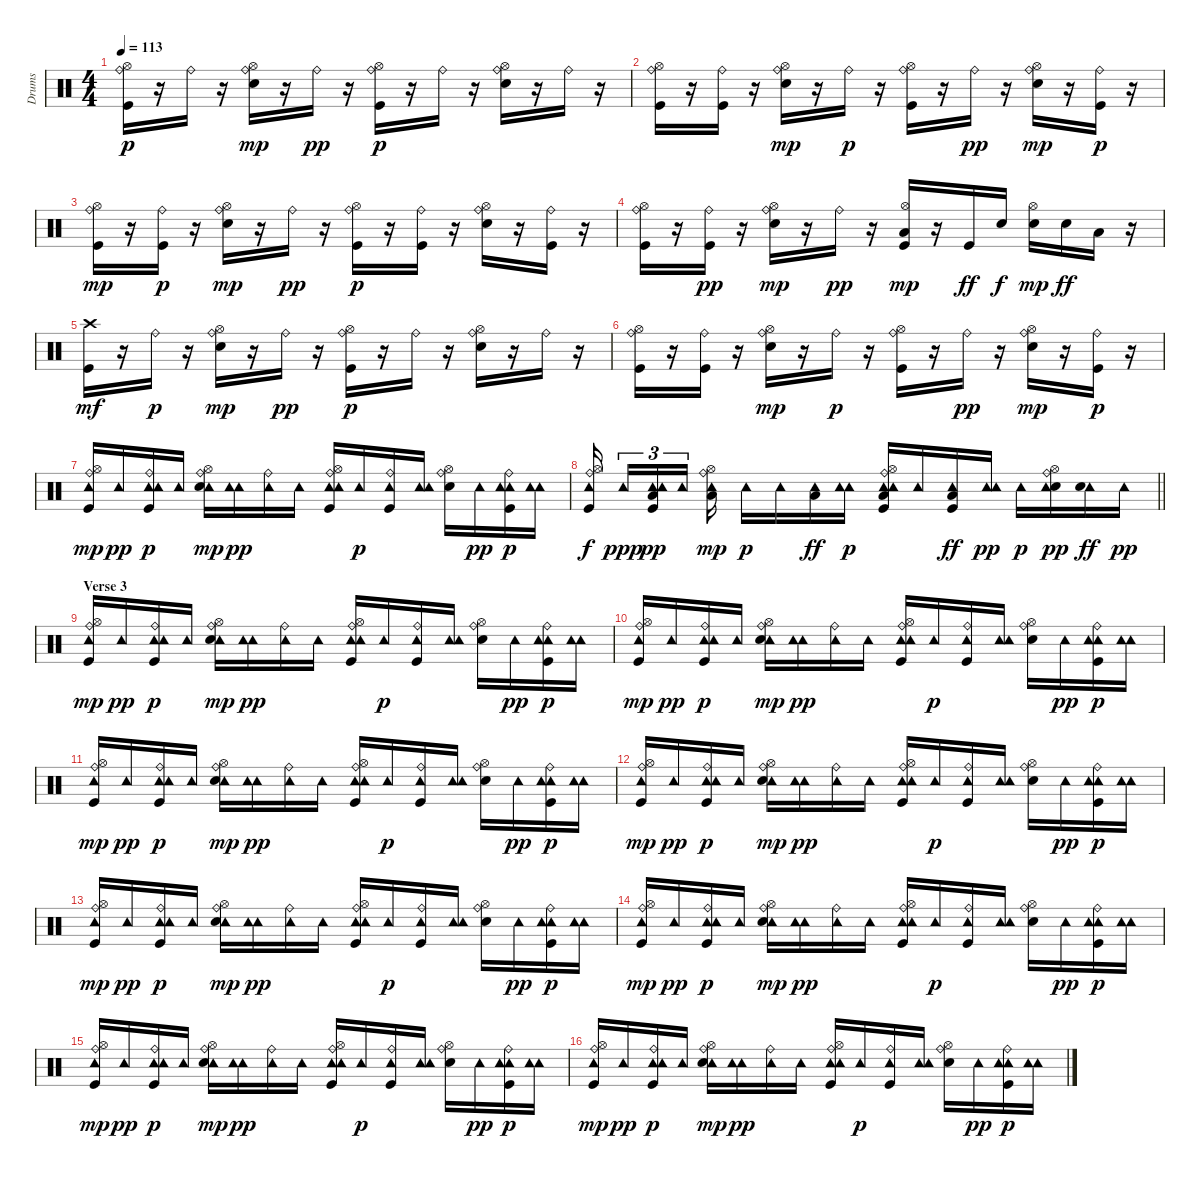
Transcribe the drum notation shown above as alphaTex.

\track ("Drums" "Drums") {instrument percussion}
\staff {score}
\articulation defaults
\ts (4 4)
\tempo 113
\clef neutral
\ks c
("Kick (hit)" "Hi-Hat (open)" "Ride (bell)").16{dy p} r.16 "Ride (bell)".16 r.16 ("Electric Snare (hit)" "Hi-Hat (open)" "Ride (bell)").16{dy mp} r.16 "Ride (bell)".16{dy pp} r.16 ("Kick (hit)" "Hi-Hat (open)" "Ride (bell)").16{dy p} r.16 "Ride (bell)".16 r.16 ("Electric Snare (hit)" "Hi-Hat (open)" "Ride (bell)").16 r.16 "Ride (bell)".16 r.16 |
("Kick (hit)" "Hi-Hat (open)" "Ride (bell)").16 r.16 ("Kick (hit)" "Ride (bell)").16 r.16 ("Electric Snare (hit)" "Hi-Hat (open)" "Ride (bell)").16{dy mp} r.16 "Ride (bell)".16{dy p} r.16 ("Kick (hit)" "Hi-Hat (open)" "Ride (bell)").16 r.16 "Ride (bell)".16{dy pp} r.16 ("Electric Snare (hit)" "Hi-Hat (open)" "Ride (bell)").16{dy mp} r.16 ("Kick (hit)" "Ride (bell)").16{dy p} r.16 |
("Kick (hit)" "Hi-Hat (open)" "Ride (bell)").16{dy mp} r.16 ("Kick (hit)" "Ride (bell)").16{dy p} r.16 ("Electric Snare (hit)" "Hi-Hat (open)" "Ride (bell)").16{dy mp} r.16 "Ride (bell)".16{dy pp} r.16 ("Kick (hit)" "Hi-Hat (open)" "Ride (bell)").16{dy p} r.16 ("Kick (hit)" "Ride (bell)").16 r.16 ("Electric Snare (hit)" "Hi-Hat (open)" "Ride (bell)").16 r.16 ("Kick (hit)" "Ride (bell)").16 r.16 |
("Kick (hit)" "Hi-Hat (open)" "Ride (bell)").16 r.16 ("Kick (hit)" "Ride (bell)").16{dy pp} r.16 ("Electric Snare (hit)" "Hi-Hat (open)" "Ride (bell)").16{dy mp} r.16 "Ride (bell)".16{dy pp} r.16 ("Kick (hit)" "Low Tom (hit)" "Hi-Hat (open)").16{dy mp} r.16 "Kick (hit)".16{dy ff} "Electric Snare (hit)".16{dy f} ("Electric Snare (hit)" "Hi-Hat (open)").16{dy mp} "Electric Snare (hit)".16{dy ff} "Low Tom (hit)".16 r.16 |
("Kick (hit)" "Crash high (hit)").16{dy mf} r.16 "Ride (bell)".16{dy p} r.16 ("Electric Snare (hit)" "Hi-Hat (open)" "Ride (bell)").16{dy mp} r.16 "Ride (bell)".16{dy pp} r.16 ("Kick (hit)" "Hi-Hat (open)" "Ride (bell)").16{dy p} r.16 "Ride (bell)".16 r.16 ("Electric Snare (hit)" "Hi-Hat (open)" "Ride (bell)").16 r.16 "Ride (bell)".16 r.16 |
("Kick (hit)" "Hi-Hat (open)" "Ride (bell)").16 r.16 ("Kick (hit)" "Ride (bell)").16 r.16 ("Electric Snare (hit)" "Hi-Hat (open)" "Ride (bell)").16{dy mp} r.16 "Ride (bell)".16{dy p} r.16 ("Kick (hit)" "Hi-Hat (open)" "Ride (bell)").16 r.16 "Ride (bell)".16{dy pp} r.16 ("Electric Snare (hit)" "Hi-Hat (open)" "Ride (bell)").16{dy mp} r.16 ("Kick (hit)" "Ride (bell)").16{dy p} r.16 |
("Kick (hit)" "Hi-Hat (open)" "Ride (bell)" "Tambourine (hit)").16{dy mp} "Tambourine (hit)".16{dy pp} ("Tambourine (hit)" "Kick (hit)" "Ride (bell)" "Tambourine (hit)").16{dy p} "Tambourine (hit)".16 ("Tambourine (hit)" "Electric Snare (hit)" "Hi-Hat (open)" "Ride (bell)").16{dy mp} ("Tambourine (hit)" "Tambourine (hit)").16{dy pp} ("Tambourine (hit)" "Ride (bell)").16 "Tambourine (hit)".16 ("Tambourine (hit)" "Kick (hit)" "Hi-Hat (open)" "Ride (bell)" "Tambourine (hit)").16 "Tambourine (hit)".16{dy p} ("Kick (hit)" "Ride (bell)" "Tambourine (hit)").16 ("Tambourine (hit)" "Tambourine (hit)").16 ("Electric Snare (hit)" "Hi-Hat (open)" "Ride (bell)").16 "Tambourine (hit)".16{dy pp} ("Tambourine (hit)" "Tambourine (hit)" "Kick (hit)" "Ride (bell)").16{dy p} ("Tambourine (hit)" "Tambourine (hit)").16 |
\barLineRight lightlight
("Tambourine (hit)" "Kick (hit)" "Hi-Hat (open)" "Ride (bell)").16{dy f} "Tambourine (hit)".16{tu (3 2) dy ppp} ("Tambourine (hit)" "Kick (hit)" "Low Tom (hit)" "Tambourine (hit)").16{tu (3 2) dy pp} "Tambourine (hit)".16{tu (3 2)} ("Tambourine (hit)" "Low Tom (hit)" "Hi-Hat (open)" "Ride (bell)").16{dy mp} "Tambourine (hit)".16{dy p} "Tambourine (hit)".16 ("Tambourine (hit)" "Low Tom (hit)").16{dy ff} ("Tambourine (hit)" "Tambourine (hit)").16{dy p} ("Tambourine (hit)" "Kick (hit)" "Low Tom (hit)" "Hi-Hat (open)" "Ride (bell)" "Tambourine (hit)").16 "Tambourine (hit)".16 ("Tambourine (hit)" "Kick (hit)" "Low Tom (hit)").16{dy ff} ("Tambourine (hit)" "Tambourine (hit)").16{dy pp} "Tambourine (hit)".16{dy p} ("Electric Snare (hit)" "Hi-Hat (open)" "Ride (bell)" "Tambourine (hit)").16{dy pp} ("Tambourine (hit)" "Electric Snare (hit)").16{dy ff} "Tambourine (hit)".16{dy pp} |
\section ("" "Verse 3")
("Kick (hit)" "Hi-Hat (open)" "Ride (bell)" "Tambourine (hit)").16{dy mp} "Tambourine (hit)".16{dy pp} ("Tambourine (hit)" "Kick (hit)" "Ride (bell)" "Tambourine (hit)").16{dy p} "Tambourine (hit)".16 ("Tambourine (hit)" "Electric Snare (hit)" "Hi-Hat (open)" "Ride (bell)").16{dy mp} ("Tambourine (hit)" "Tambourine (hit)").16{dy pp} ("Tambourine (hit)" "Ride (bell)").16 "Tambourine (hit)".16 ("Tambourine (hit)" "Kick (hit)" "Hi-Hat (open)" "Ride (bell)" "Tambourine (hit)").16 "Tambourine (hit)".16{dy p} ("Kick (hit)" "Ride (bell)" "Tambourine (hit)").16 ("Tambourine (hit)" "Tambourine (hit)").16 ("Electric Snare (hit)" "Hi-Hat (open)" "Ride (bell)").16 "Tambourine (hit)".16{dy pp} ("Tambourine (hit)" "Tambourine (hit)" "Kick (hit)" "Ride (bell)").16{dy p} ("Tambourine (hit)" "Tambourine (hit)").16 |
("Kick (hit)" "Hi-Hat (open)" "Ride (bell)" "Tambourine (hit)").16{dy mp} "Tambourine (hit)".16{dy pp} ("Tambourine (hit)" "Kick (hit)" "Ride (bell)" "Tambourine (hit)").16{dy p} "Tambourine (hit)".16 ("Tambourine (hit)" "Electric Snare (hit)" "Hi-Hat (open)" "Ride (bell)").16{dy mp} ("Tambourine (hit)" "Tambourine (hit)").16{dy pp} ("Tambourine (hit)" "Ride (bell)").16 "Tambourine (hit)".16 ("Tambourine (hit)" "Kick (hit)" "Hi-Hat (open)" "Ride (bell)" "Tambourine (hit)").16 "Tambourine (hit)".16{dy p} ("Kick (hit)" "Ride (bell)" "Tambourine (hit)").16 ("Tambourine (hit)" "Tambourine (hit)").16 ("Electric Snare (hit)" "Hi-Hat (open)" "Ride (bell)").16 "Tambourine (hit)".16{dy pp} ("Tambourine (hit)" "Tambourine (hit)" "Kick (hit)" "Ride (bell)").16{dy p} ("Tambourine (hit)" "Tambourine (hit)").16 |
("Kick (hit)" "Hi-Hat (open)" "Ride (bell)" "Tambourine (hit)").16{dy mp} "Tambourine (hit)".16{dy pp} ("Tambourine (hit)" "Kick (hit)" "Ride (bell)" "Tambourine (hit)").16{dy p} "Tambourine (hit)".16 ("Tambourine (hit)" "Electric Snare (hit)" "Hi-Hat (open)" "Ride (bell)").16{dy mp} ("Tambourine (hit)" "Tambourine (hit)").16{dy pp} ("Tambourine (hit)" "Ride (bell)").16 "Tambourine (hit)".16 ("Tambourine (hit)" "Kick (hit)" "Hi-Hat (open)" "Ride (bell)" "Tambourine (hit)").16 "Tambourine (hit)".16{dy p} ("Kick (hit)" "Ride (bell)" "Tambourine (hit)").16 ("Tambourine (hit)" "Tambourine (hit)").16 ("Electric Snare (hit)" "Hi-Hat (open)" "Ride (bell)").16 "Tambourine (hit)".16{dy pp} ("Tambourine (hit)" "Tambourine (hit)" "Kick (hit)" "Ride (bell)").16{dy p} ("Tambourine (hit)" "Tambourine (hit)").16 |
("Kick (hit)" "Hi-Hat (open)" "Ride (bell)" "Tambourine (hit)").16{dy mp} "Tambourine (hit)".16{dy pp} ("Tambourine (hit)" "Kick (hit)" "Ride (bell)" "Tambourine (hit)").16{dy p} "Tambourine (hit)".16 ("Tambourine (hit)" "Electric Snare (hit)" "Hi-Hat (open)" "Ride (bell)").16{dy mp} ("Tambourine (hit)" "Tambourine (hit)").16{dy pp} ("Tambourine (hit)" "Ride (bell)").16 "Tambourine (hit)".16 ("Tambourine (hit)" "Kick (hit)" "Hi-Hat (open)" "Ride (bell)" "Tambourine (hit)").16 "Tambourine (hit)".16{dy p} ("Kick (hit)" "Ride (bell)" "Tambourine (hit)").16 ("Tambourine (hit)" "Tambourine (hit)").16 ("Electric Snare (hit)" "Hi-Hat (open)" "Ride (bell)").16 "Tambourine (hit)".16{dy pp} ("Tambourine (hit)" "Tambourine (hit)" "Kick (hit)" "Ride (bell)").16{dy p} ("Tambourine (hit)" "Tambourine (hit)").16 |
("Kick (hit)" "Hi-Hat (open)" "Ride (bell)" "Tambourine (hit)").16{dy mp} "Tambourine (hit)".16{dy pp} ("Tambourine (hit)" "Kick (hit)" "Ride (bell)" "Tambourine (hit)").16{dy p} "Tambourine (hit)".16 ("Tambourine (hit)" "Electric Snare (hit)" "Hi-Hat (open)" "Ride (bell)").16{dy mp} ("Tambourine (hit)" "Tambourine (hit)").16{dy pp} ("Tambourine (hit)" "Ride (bell)").16 "Tambourine (hit)".16 ("Tambourine (hit)" "Kick (hit)" "Hi-Hat (open)" "Ride (bell)" "Tambourine (hit)").16 "Tambourine (hit)".16{dy p} ("Kick (hit)" "Ride (bell)" "Tambourine (hit)").16 ("Tambourine (hit)" "Tambourine (hit)").16 ("Electric Snare (hit)" "Hi-Hat (open)" "Ride (bell)").16 "Tambourine (hit)".16{dy pp} ("Tambourine (hit)" "Tambourine (hit)" "Kick (hit)" "Ride (bell)").16{dy p} ("Tambourine (hit)" "Tambourine (hit)").16 |
("Kick (hit)" "Hi-Hat (open)" "Ride (bell)" "Tambourine (hit)").16{dy mp} "Tambourine (hit)".16{dy pp} ("Tambourine (hit)" "Kick (hit)" "Ride (bell)" "Tambourine (hit)").16{dy p} "Tambourine (hit)".16 ("Tambourine (hit)" "Electric Snare (hit)" "Hi-Hat (open)" "Ride (bell)").16{dy mp} ("Tambourine (hit)" "Tambourine (hit)").16{dy pp} ("Tambourine (hit)" "Ride (bell)").16 "Tambourine (hit)".16 ("Tambourine (hit)" "Kick (hit)" "Hi-Hat (open)" "Ride (bell)" "Tambourine (hit)").16 "Tambourine (hit)".16{dy p} ("Kick (hit)" "Ride (bell)" "Tambourine (hit)").16 ("Tambourine (hit)" "Tambourine (hit)").16 ("Electric Snare (hit)" "Hi-Hat (open)" "Ride (bell)").16 "Tambourine (hit)".16{dy pp} ("Tambourine (hit)" "Tambourine (hit)" "Kick (hit)" "Ride (bell)").16{dy p} ("Tambourine (hit)" "Tambourine (hit)").16 |
("Kick (hit)" "Hi-Hat (open)" "Ride (bell)" "Tambourine (hit)").16{dy mp} "Tambourine (hit)".16{dy pp} ("Tambourine (hit)" "Kick (hit)" "Ride (bell)" "Tambourine (hit)").16{dy p} "Tambourine (hit)".16 ("Tambourine (hit)" "Electric Snare (hit)" "Hi-Hat (open)" "Ride (bell)").16{dy mp} ("Tambourine (hit)" "Tambourine (hit)").16{dy pp} ("Tambourine (hit)" "Ride (bell)").16 "Tambourine (hit)".16 ("Tambourine (hit)" "Kick (hit)" "Hi-Hat (open)" "Ride (bell)" "Tambourine (hit)").16 "Tambourine (hit)".16{dy p} ("Kick (hit)" "Ride (bell)" "Tambourine (hit)").16 ("Tambourine (hit)" "Tambourine (hit)").16 ("Electric Snare (hit)" "Hi-Hat (open)" "Ride (bell)").16 "Tambourine (hit)".16{dy pp} ("Tambourine (hit)" "Tambourine (hit)" "Kick (hit)" "Ride (bell)").16{dy p} ("Tambourine (hit)" "Tambourine (hit)").16 |
("Kick (hit)" "Hi-Hat (open)" "Ride (bell)" "Tambourine (hit)").16{dy mp} "Tambourine (hit)".16{dy pp} ("Tambourine (hit)" "Kick (hit)" "Ride (bell)" "Tambourine (hit)").16{dy p} "Tambourine (hit)".16 ("Tambourine (hit)" "Electric Snare (hit)" "Hi-Hat (open)" "Ride (bell)").16{dy mp} ("Tambourine (hit)" "Tambourine (hit)").16{dy pp} ("Tambourine (hit)" "Ride (bell)").16 "Tambourine (hit)".16 ("Tambourine (hit)" "Kick (hit)" "Hi-Hat (open)" "Ride (bell)" "Tambourine (hit)").16 "Tambourine (hit)".16{dy p} ("Kick (hit)" "Ride (bell)" "Tambourine (hit)").16 ("Tambourine (hit)" "Tambourine (hit)").16 ("Electric Snare (hit)" "Hi-Hat (open)" "Ride (bell)").16 "Tambourine (hit)".16{dy pp} ("Tambourine (hit)" "Tambourine (hit)" "Kick (hit)" "Ride (bell)").16{dy p} ("Tambourine (hit)" "Tambourine (hit)").16
